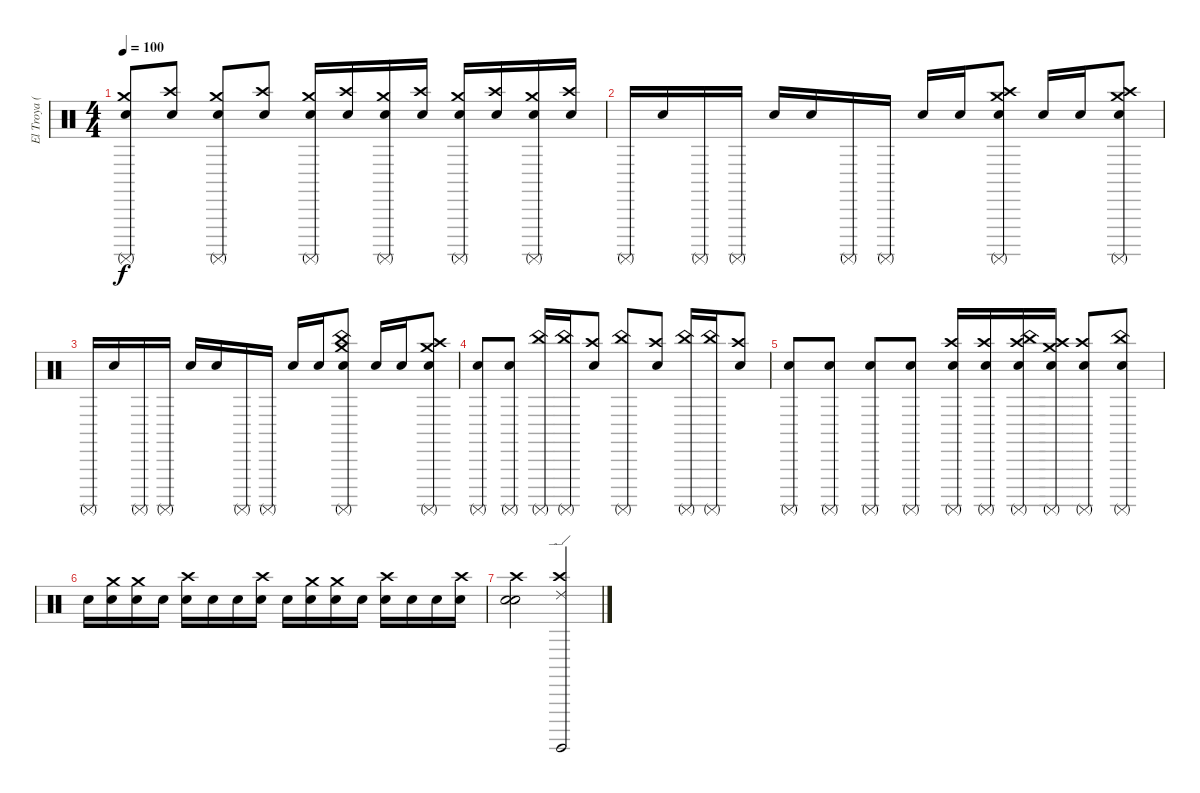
\track ("El Troya (Premio)" "El Troya (") {instrument percussion}
\staff {score}
\articulation defaults
\ts (4 4)
\tempo 100
\clef neutral
\ks c
("Surdo (mute)" "Crash medium (hit)" "Snare (hit) 2").8{dy f} ("Electric Snare (hit)" "Crash high (hit)").8 ("Surdo (mute)" "Crash medium (hit)" "Snare (hit) 2").8 ("Electric Snare (hit)" "Crash high (hit)").8 ("Surdo (mute)" "Crash medium (hit)" "Snare (hit) 2").16 ("Electric Snare (hit)" "Crash high (hit)").16 ("Surdo (mute)" "Crash medium (hit)" "Snare (hit) 2").16 ("Electric Snare (hit)" "Crash high (hit)").16 ("Surdo (mute)" "Crash medium (hit)" "Snare (hit) 2").16 ("Electric Snare (hit)" "Crash high (hit)").16 ("Surdo (mute)" "Crash medium (hit)" "Snare (hit) 2").16 ("Electric Snare (hit)" "Crash high (hit)").16 |
"Surdo (mute)".16 "Electric Snare (hit)".16 "Surdo (mute)".16 "Surdo (mute)".16 "Electric Snare (hit)".16 "Electric Snare (hit)".16 "Surdo (mute)".16 "Surdo (mute)".16 "Electric Snare (hit)".16 "Electric Snare (hit)".16 ("Crash high (hit)" "Crash medium (hit)" "Electric Snare (hit)" "Surdo (mute)").8 "Electric Snare (hit)".16 "Electric Snare (hit)".16 ("Crash high (hit)" "Crash medium (hit)" "Electric Snare (hit)" "Surdo (mute)").8 |
"Surdo (mute)".16 "Electric Snare (hit)".16 "Surdo (mute)".16 "Surdo (mute)".16 "Electric Snare (hit)".16 "Electric Snare (hit)".16 "Surdo (mute)".16 "Surdo (mute)".16 "Electric Snare (hit)".16 "Electric Snare (hit)".16 ("Crash medium (hit)" "China (hit)" "Electric Snare (hit)" "Surdo (mute)").8 "Electric Snare (hit)".16 "Electric Snare (hit)".16 ("Crash high (hit)" "Crash medium (hit)" "Electric Snare (hit)" "Surdo (mute)").8 |
("Electric Snare (hit)" "Surdo (mute)").8 ("Surdo (mute)" "Electric Snare (hit)").8 ("China (hit)" "Surdo (mute)").16 ("China (hit)" "Surdo (mute)").16 ("Crash high (hit)" "Electric Snare (hit)").8 ("China (hit)" "Surdo (mute)").8 ("Crash high (hit)" "Electric Snare (hit)").8 ("China (hit)" "Surdo (mute)").16 ("China (hit)" "Surdo (mute)").16 ("Crash high (hit)" "Electric Snare (hit)").8 |
("Electric Snare (hit)" "Surdo (mute)").8 ("Surdo (mute)" "Electric Snare (hit)").8 ("Electric Snare (hit)" "Surdo (mute)").8 ("Surdo (mute)" "Electric Snare (hit)").8 ("Crash high (hit)" "Electric Snare (hit)" "Surdo (mute)").16 ("Crash high (hit)" "Electric Snare (hit)" "Surdo (mute)").16 ("China (hit)" "Crash high (hit)" "Electric Snare (hit)" "Surdo (mute)").16 ("Crash high (hit)" "Crash medium (hit)" "Electric Snare (hit)" "Surdo (mute)").16 ("Crash high (hit)" "Electric Snare (hit)" "Surdo (mute)").8 ("China (hit)" "Electric Snare (hit)" "Surdo (mute)").8 |
"Snare (hit) 2".16 ("Crash medium (hit)" "Snare (hit) 2").16 ("Crash medium (hit)" "Snare (hit) 2").16 "Snare (hit) 2".16 ("Crash high (hit)" "Snare (hit) 2").16 "Snare (hit) 2".16 "Snare (hit) 2".16 ("Crash high (hit)" "Snare (hit) 2").16 "Snare (hit) 2".16 ("Crash medium (hit)" "Snare (hit) 2").16 ("Crash medium (hit)" "Snare (hit) 2").16 "Snare (hit) 2".16 ("Crash high (hit)" "Snare (hit) 2").16 "Snare (hit) 2".16 "Snare (hit) 2".16 ("Crash high (hit)" "Snare (hit) 2").16 |
("Crash high (hit)" "Electric Snare (hit)" "Snare (hit) 2").2 ("Crash high (hit)" "Ride (edge) 2" "Surdo (hit)").2
